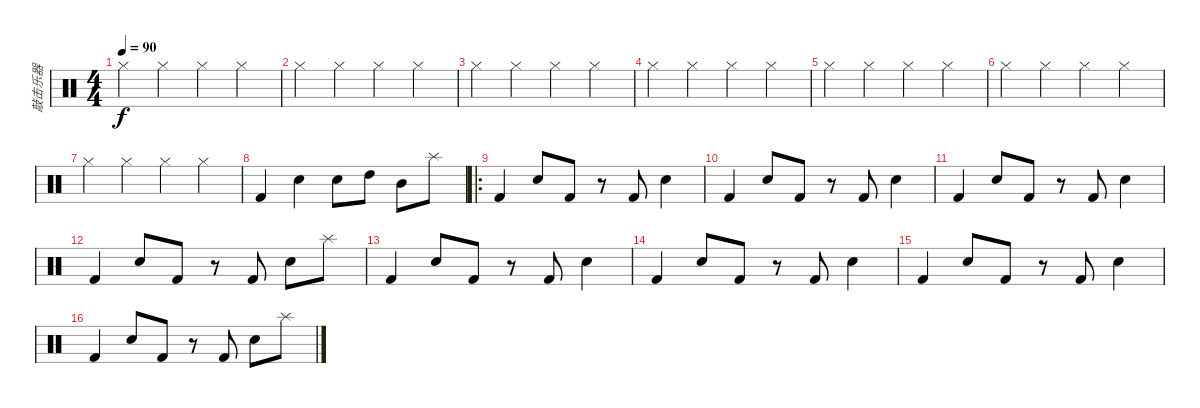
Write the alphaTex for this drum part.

\track ("敲击乐器" "敲击乐器") {instrument percussion}
\staff {score}
\articulation defaults
\ts (4 4)
\tempo 90
\clef neutral
\ks c "Hi-Hat (closed)".4{dy f} "Hi-Hat (closed)".4 "Hi-Hat (closed)".4 "Hi-Hat (closed)".4
|
"Hi-Hat (closed)".4 "Hi-Hat (closed)".4 "Hi-Hat (closed)".4 "Hi-Hat (closed)".4 |
"Hi-Hat (closed)".4 "Hi-Hat (closed)".4 "Hi-Hat (closed)".4 "Hi-Hat (closed)".4 |
"Hi-Hat (closed)".4 "Hi-Hat (closed)".4 "Hi-Hat (closed)".4 "Hi-Hat (closed)".4 |
"Hi-Hat (closed)".4 "Hi-Hat (closed)".4 "Hi-Hat (closed)".4 "Hi-Hat (closed)".4 |
"Hi-Hat (closed)".4 "Hi-Hat (closed)".4 "Hi-Hat (closed)".4 "Hi-Hat (closed)".4 |
"Hi-Hat (closed)".4 "Hi-Hat (closed)".4 "Hi-Hat (closed)".4 "Hi-Hat (closed)".4 |
"Kick (hit) 2".4 "Snare (hit) 2".4 "Snare (hit) 2".8 "High Tom (hit)".8 "Mid Tom (hit)".8 "Splash (hit)".8 |
\ro "Kick (hit) 2".4 "Snare (hit) 2".8 "Kick (hit) 2".8
r.8 "Kick (hit) 2".8 "Snare (hit) 2".4 |
"Kick (hit) 2".4 "Snare (hit) 2".8 "Kick (hit) 2".8 r.8 "Kick (hit) 2".8 "Snare (hit) 2".4 |
"Kick (hit) 2".4 "Snare (hit) 2".8 "Kick (hit) 2".8 r.8 "Kick (hit) 2".8 "Snare (hit) 2".4 |
"Kick (hit) 2".4 "Snare (hit) 2".8 "Kick (hit) 2".8 r.8 "Kick (hit) 2".8 "Snare (hit) 2".8 "Splash (hit)".8 |
"Kick (hit) 2".4 "Snare (hit) 2".8 "Kick (hit) 2".8 r.8 "Kick (hit) 2".8 "Snare (hit) 2".4 |
"Kick (hit) 2".4 "Snare (hit) 2".8 "Kick (hit) 2".8 r.8 "Kick (hit) 2".8 "Snare (hit) 2".4 |
"Kick (hit) 2".4 "Snare (hit) 2".8 "Kick (hit) 2".8 r.8 "Kick (hit) 2".8 "Snare (hit) 2".4 |
"Kick (hit) 2".4 "Snare (hit) 2".8 "Kick (hit) 2".8 r.8 "Kick (hit) 2".8 "Snare (hit) 2".8 "Splash (hit)".8
